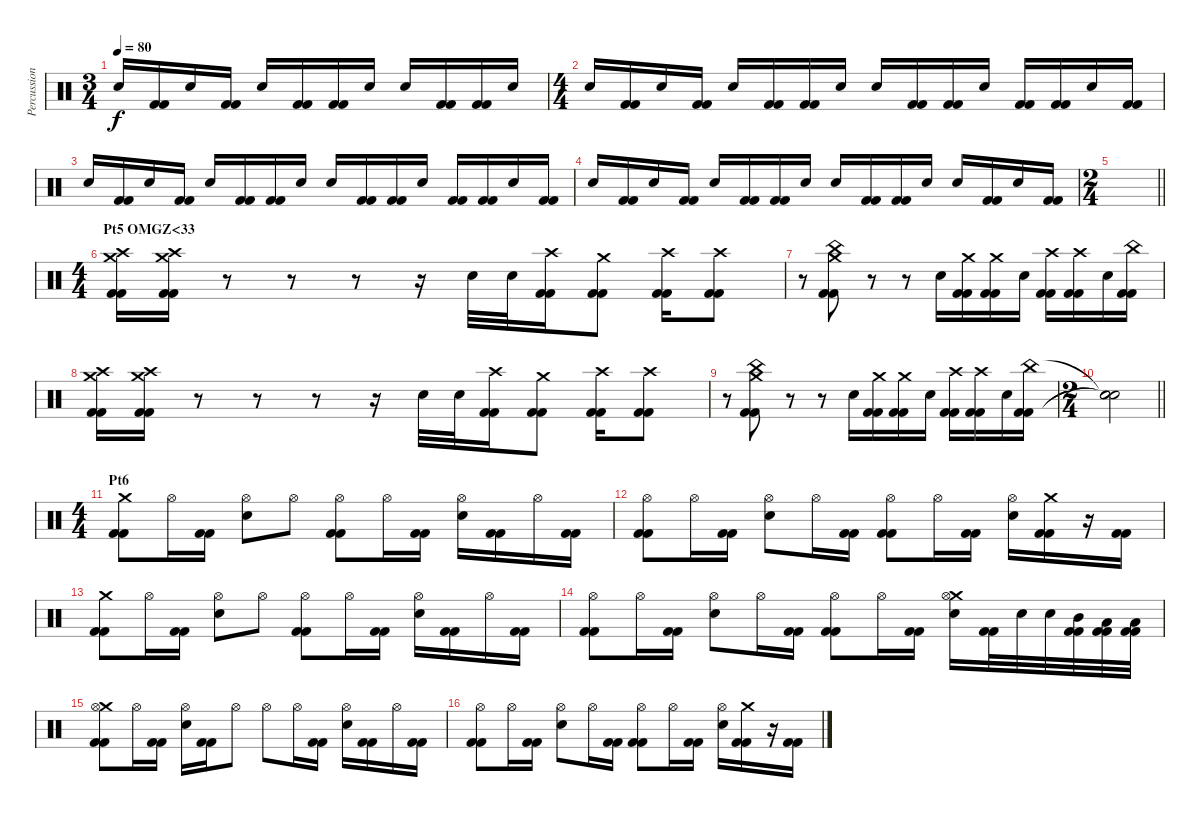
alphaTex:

\track ("Percussion" "Percussion") {instrument percussion}
\staff {score}
\articulation defaults
\ts (3 4)
\tempo 80
\clef neutral
\ks c "Electric Snare (hit)".16{dy f}
("Kick (hit) 2" "Kick (hit) 2").16 "Electric Snare (hit)".16 ("Kick (hit) 2" "Kick (hit) 2").16 "Electric Snare (hit)".16 ("Kick (hit) 2" "Kick (hit) 2").16 ("Kick (hit) 2" "Kick (hit) 2").16 "Electric Snare (hit)".16 "Electric Snare (hit)".16 ("Kick (hit) 2" "Kick (hit) 2").16 ("Kick (hit) 2" "Kick (hit) 2").16 "Electric Snare (hit)".16 |
\ts (4 4)
"Electric Snare (hit)".16 ("Kick (hit) 2" "Kick (hit) 2").16 "Electric Snare (hit)".16 ("Kick (hit) 2" "Kick (hit) 2").16 "Electric Snare (hit)".16 ("Kick (hit) 2" "Kick (hit) 2").16 ("Kick (hit) 2" "Kick (hit) 2").16 "Electric Snare (hit)".16 "Electric Snare (hit)".16 ("Kick (hit) 2" "Kick (hit) 2").16 ("Kick (hit) 2" "Kick (hit) 2").16 "Electric Snare (hit)".16 ("Kick (hit) 2" "Kick (hit) 2").16 ("Kick (hit) 2" "Kick (hit) 2").16 "Electric Snare (hit)".16 ("Kick (hit) 2" "Kick (hit) 2").16 |
"Electric Snare (hit)".16 ("Kick (hit) 2" "Kick (hit) 2").16 "Electric Snare (hit)".16 ("Kick (hit) 2" "Kick (hit) 2").16 "Electric Snare (hit)".16 ("Kick (hit) 2" "Kick (hit) 2").16 ("Kick (hit) 2" "Kick (hit) 2").16 "Electric Snare (hit)".16 "Electric Snare (hit)".16 ("Kick (hit) 2" "Kick (hit) 2").16 ("Kick (hit) 2" "Kick (hit) 2").16 "Electric Snare (hit)".16 ("Kick (hit) 2" "Kick (hit) 2").16 ("Kick (hit) 2" "Kick (hit) 2").16 "Electric Snare (hit)".16 ("Kick (hit) 2" "Kick (hit) 2").16 |
"Electric Snare (hit)".16 ("Kick (hit) 2" "Kick (hit) 2").16 "Electric Snare (hit)".16 ("Kick (hit) 2" "Kick (hit) 2").16 "Electric Snare (hit)".16 ("Kick (hit) 2" "Kick (hit) 2").16 ("Kick (hit) 2" "Kick (hit) 2").16 "Electric Snare (hit)".16 "Electric Snare (hit)".16 ("Kick (hit) 2" "Kick (hit) 2").16 ("Kick (hit) 2" "Kick (hit) 2").16 "Electric Snare (hit)".16 "Electric Snare (hit)".16 ("Kick (hit) 2" "Kick (hit) 2").16 "Electric Snare (hit)".16 ("Kick (hit) 2" "Kick (hit) 2").16 |
\ts (2 4)
\barLineRight lightlight
|
\ts (4 4)
\section ("" "Pt5 OMGZ<33")
("Crash medium (hit)" "Crash high (hit)" "Kick (hit) 2" "Kick (hit) 2").16 ("Crash medium (hit)" "Crash high (hit)" "Kick (hit) 2" "Kick (hit) 2").16 r.8 r.8 r.8 r.16 "Electric Snare (hit)".32 "Electric Snare (hit)".32 ("Crash high (hit)" "Kick (hit) 2" "Kick (hit) 2").16 ("Crash medium (hit)" "Kick (hit) 2" "Kick (hit) 2").8 ("Crash high (hit)" "Kick (hit) 2" "Kick (hit) 2").16 ("Crash high (hit)" "Kick (hit) 2" "Kick (hit) 2").8 |
r.8 ("Crash medium (hit)" "China (hit)" "Kick (hit) 2" "Kick (hit) 2").8 r.8 r.8 "Electric Snare (hit)".16 ("Crash medium (hit)" "Kick (hit) 2" "Kick (hit) 2").16 ("Crash medium (hit)" "Kick (hit) 2" "Kick (hit) 2").16 "Electric Snare (hit)".16 ("Crash high (hit)" "Kick (hit) 2" "Kick (hit) 2").16 ("Crash high (hit)" "Kick (hit) 2" "Kick (hit) 2").16 "Electric Snare (hit)".16 ("China (hit)" "Kick (hit) 2" "Kick (hit) 2").16 |
("Crash medium (hit)" "Crash high (hit)" "Kick (hit) 2" "Kick (hit) 2").16 ("Crash medium (hit)" "Crash high (hit)" "Kick (hit) 2" "Kick (hit) 2").16 r.8 r.8 r.8 r.16 "Electric Snare (hit)".32 "Electric Snare (hit)".32 ("Crash high (hit)" "Kick (hit) 2" "Kick (hit) 2").16 ("Crash medium (hit)" "Kick (hit) 2" "Kick (hit) 2").8 ("Crash high (hit)" "Kick (hit) 2" "Kick (hit) 2").16 ("Crash high (hit)" "Kick (hit) 2" "Kick (hit) 2").8 |
r.8 ("Crash medium (hit)" "China (hit)" "Kick (hit) 2" "Kick (hit) 2").8 r.8 r.8 "Electric Snare (hit)".16 ("Crash medium (hit)" "Kick (hit) 2" "Kick (hit) 2").16 ("Crash medium (hit)" "Kick (hit) 2" "Kick (hit) 2").16 "Electric Snare (hit)".16 ("Crash high (hit)" "Kick (hit) 2" "Kick (hit) 2").16 ("Crash high (hit)" "Kick (hit) 2" "Kick (hit) 2").16 "Electric Snare (hit)".16 ("China (hit)" "Kick (hit) 2" "Kick (hit) 2").16 |
\ts (2 4)
\barLineRight lightlight
("Snare (hit)"{t} "Snare (hit)"{t} "Snare (hit)"{t}).2 |
\ts (4 4)
\section ("" "Pt6")
("Crash medium (hit)" "Kick (hit) 2" "Kick (hit) 2").8 "Hi-Hat (open)".16 ("Kick (hit) 2" "Kick (hit) 2").16 ("Hi-Hat (open)" "Electric Snare (hit)").8 "Hi-Hat (open)".8 ("Hi-Hat (open)" "Kick (hit) 2" "Kick (hit) 2").8 "Hi-Hat (open)".16 ("Kick (hit) 2" "Kick (hit) 2").16 ("Hi-Hat (open)" "Electric Snare (hit)").16 ("Kick (hit) 2" "Kick (hit) 2").16 "Hi-Hat (open)".16 ("Kick (hit) 2" "Kick (hit) 2").16 |
("Hi-Hat (open)" "Kick (hit) 2" "Kick (hit) 2").8 "Hi-Hat (open)".16 ("Kick (hit) 2" "Kick (hit) 2").16 ("Hi-Hat (open)" "Electric Snare (hit)").8 "Hi-Hat (open)".16 ("Kick (hit) 2" "Kick (hit) 2").16 ("Hi-Hat (open)" "Kick (hit) 2" "Kick (hit) 2").8 "Hi-Hat (open)".16 ("Kick (hit) 2" "Kick (hit) 2").16 ("Hi-Hat (open)" "Electric Snare (hit)").16 ("Crash medium (hit)" "Kick (hit) 2" "Kick (hit) 2").16 r.16 ("Kick (hit) 2" "Kick (hit) 2").16 |
("Crash medium (hit)" "Kick (hit) 2" "Kick (hit) 2").8 "Hi-Hat (open)".16 ("Kick (hit) 2" "Kick (hit) 2").16 ("Hi-Hat (open)" "Electric Snare (hit)").8 "Hi-Hat (open)".8 ("Hi-Hat (open)" "Kick (hit) 2" "Kick (hit) 2").8 "Hi-Hat (open)".16 ("Kick (hit) 2" "Kick (hit) 2").16 ("Hi-Hat (open)" "Electric Snare (hit)").16 ("Kick (hit) 2" "Kick (hit) 2").16 "Hi-Hat (open)".16 ("Kick (hit) 2" "Kick (hit) 2").16 |
("Hi-Hat (open)" "Kick (hit) 2" "Kick (hit) 2").8 "Hi-Hat (open)".16 ("Kick (hit) 2" "Kick (hit) 2").16 ("Hi-Hat (open)" "Electric Snare (hit)").8 "Hi-Hat (open)".16 ("Kick (hit) 2" "Kick (hit) 2").16 ("Hi-Hat (open)" "Kick (hit) 2" "Kick (hit) 2").8 "Hi-Hat (open)".16 ("Kick (hit) 2" "Kick (hit) 2").16 ("Crash medium (hit)" "Hi-Hat (open)" "Electric Snare (hit)").16 ("Kick (hit) 2" "Kick (hit) 2").32 "Electric Snare (hit)".32 "Electric Snare (hit)".32 ("Mid Tom (hit)" "Kick (hit) 2" "Kick (hit) 2").32 ("Low Tom (hit)" "Kick (hit) 2" "Kick (hit) 2").32 ("Low Tom (hit)" "Kick (hit) 2" "Kick (hit) 2").32 |
("Crash medium (hit)" "Hi-Hat (open)" "Kick (hit) 2" "Kick (hit) 2").8 "Hi-Hat (open)".16 ("Kick (hit) 2" "Kick (hit) 2").16 ("Hi-Hat (open)" "Electric Snare (hit)").16 ("Kick (hit) 2" "Kick (hit) 2").16 "Hi-Hat (open)".8 "Hi-Hat (open)".8 "Hi-Hat (open)".16 ("Kick (hit) 2" "Kick (hit) 2").16 ("Hi-Hat (open)" "Electric Snare (hit)").16 ("Kick (hit) 2" "Kick (hit) 2").16 "Hi-Hat (open)".16 ("Kick (hit) 2" "Kick (hit) 2").16 |
("Hi-Hat (open)" "Kick (hit) 2" "Kick (hit) 2").8 "Hi-Hat (open)".16 ("Kick (hit) 2" "Kick (hit) 2").16 ("Hi-Hat (open)" "Electric Snare (hit)").8 "Hi-Hat (open)".16 ("Kick (hit) 2" "Kick (hit) 2").16 ("Hi-Hat (open)" "Kick (hit) 2" "Kick (hit) 2").8 "Hi-Hat (open)".16 ("Kick (hit) 2" "Kick (hit) 2").16 ("Hi-Hat (open)" "Electric Snare (hit)").16 ("Crash medium (hit)" "Kick (hit) 2" "Kick (hit) 2").16 r.16 ("Kick (hit) 2" "Kick (hit) 2").16
